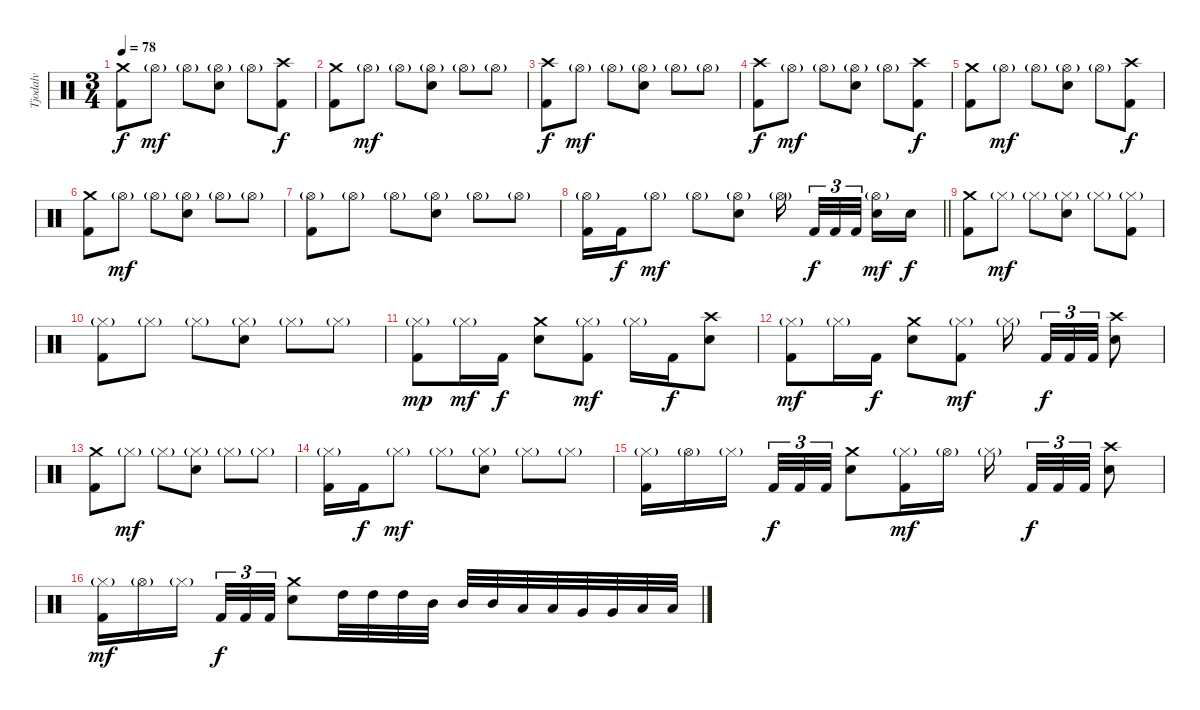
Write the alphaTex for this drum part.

\track ("Tjodalv" "Tjodalv") {instrument percussion}
\staff {score}
\articulation defaults
\ts (3 4)
\tempo 78
\clef neutral
\ks c
("Crash medium (hit)" "Kick (hit) 2").8{dy f} "Hi-Hat (open)"{g}.8{dy mf} "Hi-Hat (open)"{g}.8 ("Hi-Hat (open)"{g} "Electric Snare (hit)").8 "Hi-Hat (open)"{g}.8 ("Crash high (hit)" "Kick (hit) 2").8{dy f} |
("Crash medium (hit)" "Kick (hit) 2").8 "Hi-Hat (open)"{g}.8{dy mf} "Hi-Hat (open)"{g}.8 ("Hi-Hat (open)"{g} "Electric Snare (hit)").8 "Hi-Hat (open)"{g}.8 "Hi-Hat (open)"{g}.8 |
("Crash high (hit)" "Kick (hit) 2").8{dy f} "Hi-Hat (open)"{g}.8{dy mf} "Hi-Hat (open)"{g}.8 ("Hi-Hat (open)"{g} "Electric Snare (hit)").8 "Hi-Hat (open)"{g}.8 "Hi-Hat (open)"{g}.8 |
("Crash high (hit)" "Kick (hit) 2").8{dy f} "Hi-Hat (open)"{g}.8{dy mf} "Hi-Hat (open)"{g}.8 ("Hi-Hat (open)"{g} "Electric Snare (hit)").8 "Hi-Hat (open)"{g}.8 ("Crash high (hit)" "Kick (hit) 2").8{dy f} |
("Crash medium (hit)" "Kick (hit) 2").8 "Hi-Hat (open)"{g}.8{dy mf} "Hi-Hat (open)"{g}.8 ("Hi-Hat (open)"{g} "Electric Snare (hit)").8 "Hi-Hat (open)"{g}.8 ("Crash high (hit)" "Kick (hit) 2").8{dy f} |
("Crash medium (hit)" "Kick (hit) 2").8 "Hi-Hat (open)"{g}.8{dy mf} "Hi-Hat (open)"{g}.8 ("Hi-Hat (open)"{g} "Electric Snare (hit)").8 "Hi-Hat (open)"{g}.8 "Hi-Hat (open)"{g}.8 |
("Hi-Hat (open)"{g} "Kick (hit) 2").8 "Hi-Hat (open)"{g}.8 "Hi-Hat (open)"{g}.8 ("Hi-Hat (open)"{g} "Electric Snare (hit)").8 "Hi-Hat (open)"{g}.8 "Hi-Hat (open)"{g}.8 |
\barLineRight lightlight
("Hi-Hat (open)"{g} "Kick (hit) 2").16 "Kick (hit) 2".16{dy f} "Hi-Hat (open)"{g}.8{dy mf} "Hi-Hat (open)"{g}.8 ("Hi-Hat (open)"{g} "Electric Snare (hit)").8 "Hi-Hat (open)"{g}.16{beam splitsecondary} "Kick (hit) 2".32{tu (3 2) dy f} "Kick (hit) 2".32{tu (3 2)} "Kick (hit) 2".32{tu (3 2) beam splitsecondary} ("Hi-Hat (open)"{g} "Electric Snare (hit)").16{dy mf} "Electric Snare (hit)".16{dy f} |
\section ("" "")
("Crash medium (hit)" "Kick (hit) 2").8 "Hi-Hat (closed)"{g}.8{dy mf} "Hi-Hat (closed)"{g}.8 ("Hi-Hat (closed)"{g} "Electric Snare (hit)").8 "Hi-Hat (closed)"{g}.8 ("Hi-Hat (closed)"{g} "Kick (hit) 2").8 |
("Hi-Hat (closed)"{g} "Kick (hit) 2").8 "Hi-Hat (closed)"{g}.8 "Hi-Hat (closed)"{g}.8 ("Hi-Hat (closed)"{g} "Electric Snare (hit)").8 "Hi-Hat (closed)"{g}.8 "Hi-Hat (closed)"{g}.8 |
("Hi-Hat (closed)"{g} "Kick (hit) 2").8{dy mp} "Hi-Hat (closed)"{g}.16{dy mf} "Kick (hit) 2".16{dy f} ("Crash medium (hit)" "Electric Snare (hit)").8 ("Hi-Hat (closed)"{g} "Kick (hit) 2").8{dy mf} "Hi-Hat (closed)"{g}.16 "Kick (hit) 2".16{dy f} ("Crash high (hit)" "Electric Snare (hit)").8 |
("Hi-Hat (closed)"{g} "Kick (hit) 2").8{dy mf} "Hi-Hat (closed)"{g}.16 "Kick (hit) 2".16{dy f} ("Crash medium (hit)" "Electric Snare (hit)").8 ("Hi-Hat (closed)"{g} "Kick (hit) 2").8{dy mf} "Hi-Hat (closed)"{g}.16{beam splitsecondary} "Kick (hit) 2".32{tu (3 2) dy f} "Kick (hit) 2".32{tu (3 2)} "Kick (hit) 2".32{tu (3 2)} ("Crash high (hit)" "Electric Snare (hit)").8 |
("Crash medium (hit)" "Kick (hit) 2").8 "Hi-Hat (closed)"{g}.8{dy mf} "Hi-Hat (closed)"{g}.8 ("Hi-Hat (closed)"{g} "Electric Snare (hit)").8 "Hi-Hat (closed)"{g}.8 "Hi-Hat (closed)"{g}.8 |
("Hi-Hat (closed)"{g} "Kick (hit) 2").16 "Kick (hit) 2".16{dy f} "Hi-Hat (closed)"{g}.8{dy mf} "Hi-Hat (closed)"{g}.8 ("Hi-Hat (closed)"{g} "Electric Snare (hit)").8 "Hi-Hat (closed)"{g}.8 "Hi-Hat (closed)"{g}.8 |
("Hi-Hat (closed)"{g} "Kick (hit) 2").16 "Hi-Hat (open)"{g}.16 "Hi-Hat (closed)"{g}.16{beam splitsecondary} "Kick (hit) 2".32{tu (3 2) dy f} "Kick (hit) 2".32{tu (3 2)} "Kick (hit) 2".32{tu (3 2)} ("Crash medium (hit)" "Electric Snare (hit)").8 ("Hi-Hat (closed)"{g} "Kick (hit) 2").16{dy mf} "Hi-Hat (open)"{g}.16 "Hi-Hat (closed)"{g}.16{beam splitsecondary} "Kick (hit) 2".32{tu (3 2) dy f} "Kick (hit) 2".32{tu (3 2)} "Kick (hit) 2".32{tu (3 2)} ("Crash high (hit)" "Electric Snare (hit)").8 |
("Hi-Hat (closed)"{g} "Kick (hit) 2").16{dy mf} "Hi-Hat (open)"{g}.16 "Hi-Hat (closed)"{g}.16{beam splitsecondary} "Kick (hit) 2".32{tu (3 2) dy f} "Kick (hit) 2".32{tu (3 2)} "Kick (hit) 2".32{tu (3 2)} ("Crash medium (hit)" "Electric Snare (hit)").8 "High Tom (hit)".32 "High Tom (hit)".32 "High Tom (hit)".32 "Mid Tom (hit)".32 "Mid Tom (hit)".32 "Mid Tom (hit)".32 "Low Tom (hit)".32 "Low Tom (hit)".32 "Very Low Tom (hit)".32 "Very Low Tom (hit)".32 "Low Floor Tom (hit)".32 "Low Floor Tom (hit)".32
